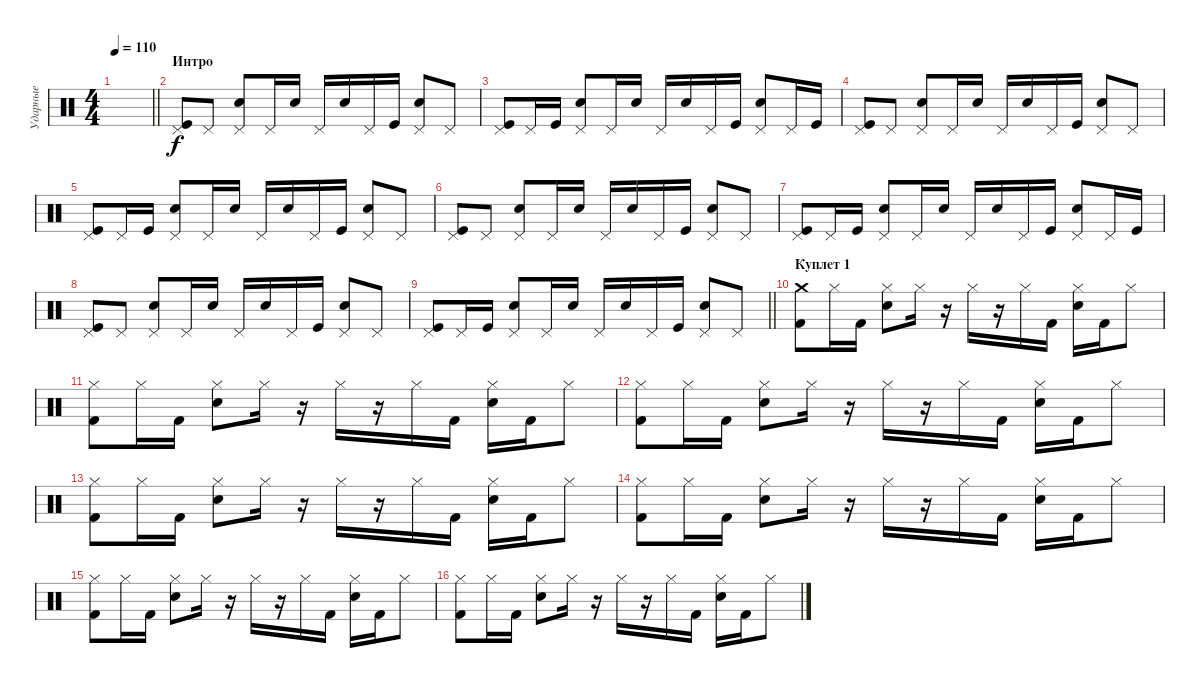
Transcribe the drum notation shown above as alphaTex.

\track ("Ударные" "Ударные") {instrument percussion}
\staff {score}
\articulation defaults
\ts (4 4)
\tempo 110
\clef neutral
\barLineRight lightlight
\ks c
|
\section ("" "Интро")
("Pedal Hi-Hat (hit)" "Kick (hit)").8 "Pedal Hi-Hat (hit)".8 ("Pedal Hi-Hat (hit)" "Electric Snare (hit)").8 "Pedal Hi-Hat (hit)".16 "Electric Snare (hit)".16 "Pedal Hi-Hat (hit)".16 "Electric Snare (hit)".16 "Pedal Hi-Hat (hit)".16 "Kick (hit)".16 ("Pedal Hi-Hat (hit)" "Electric Snare (hit)").8 "Pedal Hi-Hat (hit)".8 |
("Pedal Hi-Hat (hit)" "Kick (hit)").8 "Pedal Hi-Hat (hit)".16 "Kick (hit)".16 ("Pedal Hi-Hat (hit)" "Electric Snare (hit)").8 "Pedal Hi-Hat (hit)".16 "Electric Snare (hit)".16 "Pedal Hi-Hat (hit)".16 "Electric Snare (hit)".16 "Pedal Hi-Hat (hit)".16 "Kick (hit)".16 ("Pedal Hi-Hat (hit)" "Electric Snare (hit)").8 "Pedal Hi-Hat (hit)".16 "Kick (hit)".16 |
("Pedal Hi-Hat (hit)" "Kick (hit)").8 "Pedal Hi-Hat (hit)".8 ("Pedal Hi-Hat (hit)" "Electric Snare (hit)").8 "Pedal Hi-Hat (hit)".16 "Electric Snare (hit)".16 "Pedal Hi-Hat (hit)".16 "Electric Snare (hit)".16 "Pedal Hi-Hat (hit)".16 "Kick (hit)".16 ("Pedal Hi-Hat (hit)" "Electric Snare (hit)").8 "Pedal Hi-Hat (hit)".8 |
("Pedal Hi-Hat (hit)" "Kick (hit)").8 "Pedal Hi-Hat (hit)".16 "Kick (hit)".16 ("Pedal Hi-Hat (hit)" "Electric Snare (hit)").8 "Pedal Hi-Hat (hit)".16 "Electric Snare (hit)".16 "Pedal Hi-Hat (hit)".16 "Electric Snare (hit)".16 "Pedal Hi-Hat (hit)".16 "Kick (hit)".16 ("Pedal Hi-Hat (hit)" "Electric Snare (hit)").8 "Pedal Hi-Hat (hit)".8 |
("Pedal Hi-Hat (hit)" "Kick (hit)").8 "Pedal Hi-Hat (hit)".8 ("Pedal Hi-Hat (hit)" "Electric Snare (hit)").8 "Pedal Hi-Hat (hit)".16 "Electric Snare (hit)".16 "Pedal Hi-Hat (hit)".16 "Electric Snare (hit)".16 "Pedal Hi-Hat (hit)".16 "Kick (hit)".16 ("Pedal Hi-Hat (hit)" "Electric Snare (hit)").8 "Pedal Hi-Hat (hit)".8 |
("Pedal Hi-Hat (hit)" "Kick (hit)").8 "Pedal Hi-Hat (hit)".16 "Kick (hit)".16 ("Pedal Hi-Hat (hit)" "Electric Snare (hit)").8 "Pedal Hi-Hat (hit)".16 "Electric Snare (hit)".16 "Pedal Hi-Hat (hit)".16 "Electric Snare (hit)".16 "Pedal Hi-Hat (hit)".16 "Kick (hit)".16 ("Pedal Hi-Hat (hit)" "Electric Snare (hit)").8 "Pedal Hi-Hat (hit)".16 "Kick (hit)".16 |
("Pedal Hi-Hat (hit)" "Kick (hit)").8 "Pedal Hi-Hat (hit)".8 ("Pedal Hi-Hat (hit)" "Electric Snare (hit)").8 "Pedal Hi-Hat (hit)".16 "Electric Snare (hit)".16 "Pedal Hi-Hat (hit)".16 "Electric Snare (hit)".16 "Pedal Hi-Hat (hit)".16 "Kick (hit)".16 ("Pedal Hi-Hat (hit)" "Electric Snare (hit)").8 "Pedal Hi-Hat (hit)".8 |
\barLineRight lightlight
("Pedal Hi-Hat (hit)" "Kick (hit)").8 "Pedal Hi-Hat (hit)".16 "Kick (hit)".16 ("Pedal Hi-Hat (hit)" "Electric Snare (hit)").8 "Pedal Hi-Hat (hit)".16 "Electric Snare (hit)".16 "Pedal Hi-Hat (hit)".16 "Electric Snare (hit)".16 "Pedal Hi-Hat (hit)".16 "Kick (hit)".16 ("Pedal Hi-Hat (hit)" "Electric Snare (hit)").8 "Pedal Hi-Hat (hit)".8 |
\section ("" "Куплет 1")
("Crash medium (hit)" "Kick (hit) 2").8{dy f} "Hi-Hat (closed)".16 "Kick (hit) 2".16 ("Hi-Hat (closed)" "Snare (hit) 2").8 "Hi-Hat (closed)".16 r.16 "Hi-Hat (closed)".16 r.16 "Hi-Hat (closed)".16 "Kick (hit) 2".16 ("Hi-Hat (closed)" "Snare (hit) 2").16 "Kick (hit) 2".16 "Hi-Hat (closed)".8 |
("Hi-Hat (closed)" "Kick (hit) 2").8 "Hi-Hat (closed)".16 "Kick (hit) 2".16 ("Hi-Hat (closed)" "Snare (hit) 2").8 "Hi-Hat (closed)".16 r.16 "Hi-Hat (closed)".16 r.16 "Hi-Hat (closed)".16 "Kick (hit) 2".16 ("Hi-Hat (closed)" "Snare (hit) 2").16 "Kick (hit) 2".16 "Hi-Hat (closed)".8 |
("Hi-Hat (closed)" "Kick (hit) 2").8 "Hi-Hat (closed)".16 "Kick (hit) 2".16 ("Hi-Hat (closed)" "Snare (hit) 2").8 "Hi-Hat (closed)".16 r.16 "Hi-Hat (closed)".16 r.16 "Hi-Hat (closed)".16 "Kick (hit) 2".16 ("Hi-Hat (closed)" "Snare (hit) 2").16 "Kick (hit) 2".16 "Hi-Hat (closed)".8 |
("Hi-Hat (closed)" "Kick (hit) 2").8 "Hi-Hat (closed)".16 "Kick (hit) 2".16 ("Hi-Hat (closed)" "Snare (hit) 2").8 "Hi-Hat (closed)".16 r.16 "Hi-Hat (closed)".16 r.16 "Hi-Hat (closed)".16 "Kick (hit) 2".16 ("Hi-Hat (closed)" "Snare (hit) 2").16 "Kick (hit) 2".16 "Hi-Hat (closed)".8 |
("Hi-Hat (closed)" "Kick (hit) 2").8 "Hi-Hat (closed)".16 "Kick (hit) 2".16 ("Hi-Hat (closed)" "Snare (hit) 2").8 "Hi-Hat (closed)".16 r.16 "Hi-Hat (closed)".16 r.16 "Hi-Hat (closed)".16 "Kick (hit) 2".16 ("Hi-Hat (closed)" "Snare (hit) 2").16 "Kick (hit) 2".16 "Hi-Hat (closed)".8 |
("Hi-Hat (closed)" "Kick (hit) 2").8 "Hi-Hat (closed)".16 "Kick (hit) 2".16 ("Hi-Hat (closed)" "Snare (hit) 2").8 "Hi-Hat (closed)".16 r.16 "Hi-Hat (closed)".16 r.16 "Hi-Hat (closed)".16 "Kick (hit) 2".16 ("Hi-Hat (closed)" "Snare (hit) 2").16 "Kick (hit) 2".16 "Hi-Hat (closed)".8 |
("Hi-Hat (closed)" "Kick (hit) 2").8 "Hi-Hat (closed)".16 "Kick (hit) 2".16 ("Hi-Hat (closed)" "Snare (hit) 2").8 "Hi-Hat (closed)".16 r.16 "Hi-Hat (closed)".16 r.16 "Hi-Hat (closed)".16 "Kick (hit) 2".16 ("Hi-Hat (closed)" "Snare (hit) 2").16 "Kick (hit) 2".16 "Hi-Hat (closed)".8
